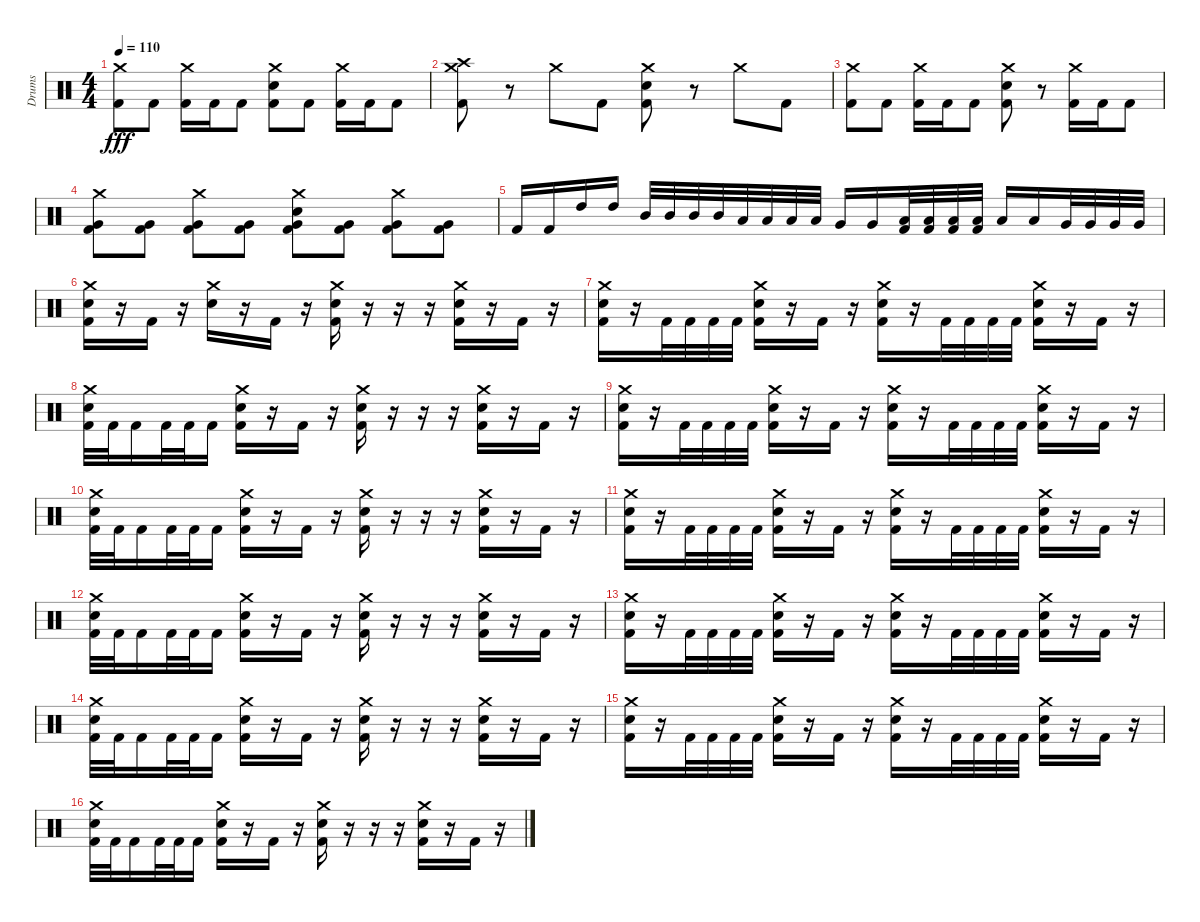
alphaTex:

\track ("Drums" "Drums") {instrument percussion}
\staff {score}
\articulation defaults
\ts (4 4)
\tempo 110
\clef neutral
\ks c
("Crash medium (hit)" "Kick (hit) 2").8{dy fff} "Kick (hit) 2".8 ("Crash medium (hit)" "Kick (hit) 2").16 "Kick (hit) 2".16 "Kick (hit) 2".8 ("Crash medium (hit)" "Snare (hit) 2" "Kick (hit) 2").8 "Kick (hit) 2".8 ("Crash medium (hit)" "Kick (hit) 2").16 "Kick (hit) 2".16 "Kick (hit) 2".8 |
("Crash high (hit)" "Crash medium (hit)" "Kick (hit) 2").8 r.8 "Crash medium (hit)".8 "Kick (hit) 2".8 ("Crash medium (hit)" "Snare (hit) 2" "Kick (hit) 2").8 r.8 "Crash medium (hit)".8 "Kick (hit) 2".8 |
("Crash medium (hit)" "Kick (hit) 2").8 "Kick (hit) 2".8 ("Crash medium (hit)" "Kick (hit) 2").16 "Kick (hit) 2".16 "Kick (hit) 2".8 ("Crash medium (hit)" "Snare (hit) 2" "Kick (hit) 2").8 r.8 ("Crash medium (hit)" "Kick (hit) 2").16 "Kick (hit) 2".16 "Kick (hit) 2".8 |
("Crash medium (hit)" "Very Low Tom (hit)" "Kick (hit) 2").8 ("Very Low Tom (hit)" "Kick (hit) 2").8 ("Crash medium (hit)" "Very Low Tom (hit)" "Kick (hit) 2").8 ("Very Low Tom (hit)" "Kick (hit) 2").8 ("Crash medium (hit)" "Electric Snare (hit)" "Very Low Tom (hit)" "Kick (hit) 2").8 ("Very Low Tom (hit)" "Kick (hit) 2").8 ("Crash medium (hit)" "Very Low Tom (hit)" "Kick (hit) 2").8 ("Very Low Tom (hit)" "Kick (hit) 2").8 |
"Kick (hit) 2".16 "Kick (hit) 2".16 "High Tom (hit)".16 "High Tom (hit)".16 "Mid Tom (hit)".32 "Mid Tom (hit)".32 "Mid Tom (hit)".32 "Mid Tom (hit)".32 "Low Tom (hit)".32 "Low Tom (hit)".32 "Low Tom (hit)".32 "Low Tom (hit)".32 "Very Low Tom (hit)".16 "Very Low Tom (hit)".16 ("Low Floor Tom (hit)" "Kick (hit) 2").32 ("Low Floor Tom (hit)" "Kick (hit) 2").32 ("Low Floor Tom (hit)" "Kick (hit) 2").32 ("Low Floor Tom (hit)" "Kick (hit) 2").32 "Low Tom (hit)".16 "Low Tom (hit)".16 "Very Low Tom (hit)".32 "Very Low Tom (hit)".32 "Very Low Tom (hit)".32 "Very Low Tom (hit)".32 |
("Crash medium (hit)" "Snare (hit) 2" "Kick (hit) 2").16 r.16 "Kick (hit) 2".16 r.16 ("Crash medium (hit)" "Snare (hit) 2").16 r.16 "Kick (hit) 2".16 r.16 ("Crash medium (hit)" "Snare (hit) 2" "Kick (hit) 2").16 r.16 r.16 r.16 ("Crash medium (hit)" "Snare (hit) 2" "Kick (hit) 2").16 r.16 "Kick (hit) 2".16 r.16 |
("Crash medium (hit)" "Snare (hit) 2" "Kick (hit) 2").16 r.16 "Kick (hit) 2".32 "Kick (hit) 2".32 "Kick (hit) 2".32 "Kick (hit) 2".32 ("Crash medium (hit)" "Snare (hit) 2" "Kick (hit) 2").16 r.16 "Kick (hit) 2".16 r.16 ("Crash medium (hit)" "Snare (hit) 2" "Kick (hit) 2").16 r.16 "Kick (hit) 2".32 "Kick (hit) 2".32 "Kick (hit) 2".32 "Kick (hit) 2".32 ("Crash medium (hit)" "Snare (hit) 2" "Kick (hit) 2").16 r.16 "Kick (hit) 2".16 r.16 |
("Crash medium (hit)" "Snare (hit) 2" "Kick (hit) 2").32 "Kick (hit) 2".32 "Kick (hit) 2".16 "Kick (hit) 2".32 "Kick (hit) 2".32 "Kick (hit) 2".16 ("Crash medium (hit)" "Snare (hit) 2" "Kick (hit) 2").16 r.16 "Kick (hit) 2".16 r.16 ("Crash medium (hit)" "Snare (hit) 2" "Kick (hit) 2").16 r.16 r.16 r.16 ("Crash medium (hit)" "Snare (hit) 2" "Kick (hit) 2").16 r.16 "Kick (hit) 2".16 r.16 |
("Crash medium (hit)" "Snare (hit) 2" "Kick (hit) 2").16 r.16 "Kick (hit) 2".32 "Kick (hit) 2".32 "Kick (hit) 2".32 "Kick (hit) 2".32 ("Crash medium (hit)" "Snare (hit) 2" "Kick (hit) 2").16 r.16 "Kick (hit) 2".16 r.16 ("Crash medium (hit)" "Snare (hit) 2" "Kick (hit) 2").16 r.16 "Kick (hit) 2".32 "Kick (hit) 2".32 "Kick (hit) 2".32 "Kick (hit) 2".32 ("Crash medium (hit)" "Snare (hit) 2" "Kick (hit) 2").16 r.16 "Kick (hit) 2".16 r.16 |
("Crash medium (hit)" "Snare (hit) 2" "Kick (hit) 2").32 "Kick (hit) 2".32 "Kick (hit) 2".16 "Kick (hit) 2".32 "Kick (hit) 2".32 "Kick (hit) 2".16 ("Crash medium (hit)" "Snare (hit) 2" "Kick (hit) 2").16 r.16 "Kick (hit) 2".16 r.16 ("Crash medium (hit)" "Snare (hit) 2" "Kick (hit) 2").16 r.16 r.16 r.16 ("Crash medium (hit)" "Snare (hit) 2" "Kick (hit) 2").16 r.16 "Kick (hit) 2".16 r.16 |
("Crash medium (hit)" "Snare (hit) 2" "Kick (hit) 2").16 r.16 "Kick (hit) 2".32 "Kick (hit) 2".32 "Kick (hit) 2".32 "Kick (hit) 2".32 ("Crash medium (hit)" "Snare (hit) 2" "Kick (hit) 2").16 r.16 "Kick (hit) 2".16 r.16 ("Crash medium (hit)" "Snare (hit) 2" "Kick (hit) 2").16 r.16 "Kick (hit) 2".32 "Kick (hit) 2".32 "Kick (hit) 2".32 "Kick (hit) 2".32 ("Crash medium (hit)" "Snare (hit) 2" "Kick (hit) 2").16 r.16 "Kick (hit) 2".16 r.16 |
("Crash medium (hit)" "Snare (hit) 2" "Kick (hit) 2").32 "Kick (hit) 2".32 "Kick (hit) 2".16 "Kick (hit) 2".32 "Kick (hit) 2".32 "Kick (hit) 2".16 ("Crash medium (hit)" "Snare (hit) 2" "Kick (hit) 2").16 r.16 "Kick (hit) 2".16 r.16 ("Crash medium (hit)" "Snare (hit) 2" "Kick (hit) 2").16 r.16 r.16 r.16 ("Crash medium (hit)" "Snare (hit) 2" "Kick (hit) 2").16 r.16 "Kick (hit) 2".16 r.16 |
("Crash medium (hit)" "Snare (hit) 2" "Kick (hit) 2").16 r.16 "Kick (hit) 2".32 "Kick (hit) 2".32 "Kick (hit) 2".32 "Kick (hit) 2".32 ("Crash medium (hit)" "Snare (hit) 2" "Kick (hit) 2").16 r.16 "Kick (hit) 2".16 r.16 ("Crash medium (hit)" "Snare (hit) 2" "Kick (hit) 2").16 r.16 "Kick (hit) 2".32 "Kick (hit) 2".32 "Kick (hit) 2".32 "Kick (hit) 2".32 ("Crash medium (hit)" "Snare (hit) 2" "Kick (hit) 2").16 r.16 "Kick (hit) 2".16 r.16 |
("Crash medium (hit)" "Snare (hit) 2" "Kick (hit) 2").32 "Kick (hit) 2".32 "Kick (hit) 2".16 "Kick (hit) 2".32 "Kick (hit) 2".32 "Kick (hit) 2".16 ("Crash medium (hit)" "Snare (hit) 2" "Kick (hit) 2").16 r.16 "Kick (hit) 2".16 r.16 ("Crash medium (hit)" "Snare (hit) 2" "Kick (hit) 2").16 r.16 r.16 r.16 ("Crash medium (hit)" "Snare (hit) 2" "Kick (hit) 2").16 r.16 "Kick (hit) 2".16 r.16 |
("Crash medium (hit)" "Snare (hit) 2" "Kick (hit) 2").16 r.16 "Kick (hit) 2".32 "Kick (hit) 2".32 "Kick (hit) 2".32 "Kick (hit) 2".32 ("Crash medium (hit)" "Snare (hit) 2" "Kick (hit) 2").16 r.16 "Kick (hit) 2".16 r.16 ("Crash medium (hit)" "Snare (hit) 2" "Kick (hit) 2").16 r.16 "Kick (hit) 2".32 "Kick (hit) 2".32 "Kick (hit) 2".32 "Kick (hit) 2".32 ("Crash medium (hit)" "Snare (hit) 2" "Kick (hit) 2").16 r.16 "Kick (hit) 2".16 r.16 |
("Crash medium (hit)" "Snare (hit) 2" "Kick (hit) 2").32 "Kick (hit) 2".32 "Kick (hit) 2".16 "Kick (hit) 2".32 "Kick (hit) 2".32 "Kick (hit) 2".16 ("Crash medium (hit)" "Snare (hit) 2" "Kick (hit) 2").16 r.16 "Kick (hit) 2".16 r.16 ("Crash medium (hit)" "Snare (hit) 2" "Kick (hit) 2").16 r.16 r.16 r.16 ("Crash medium (hit)" "Snare (hit) 2" "Kick (hit) 2").16 r.16 "Kick (hit) 2".16 r.16
